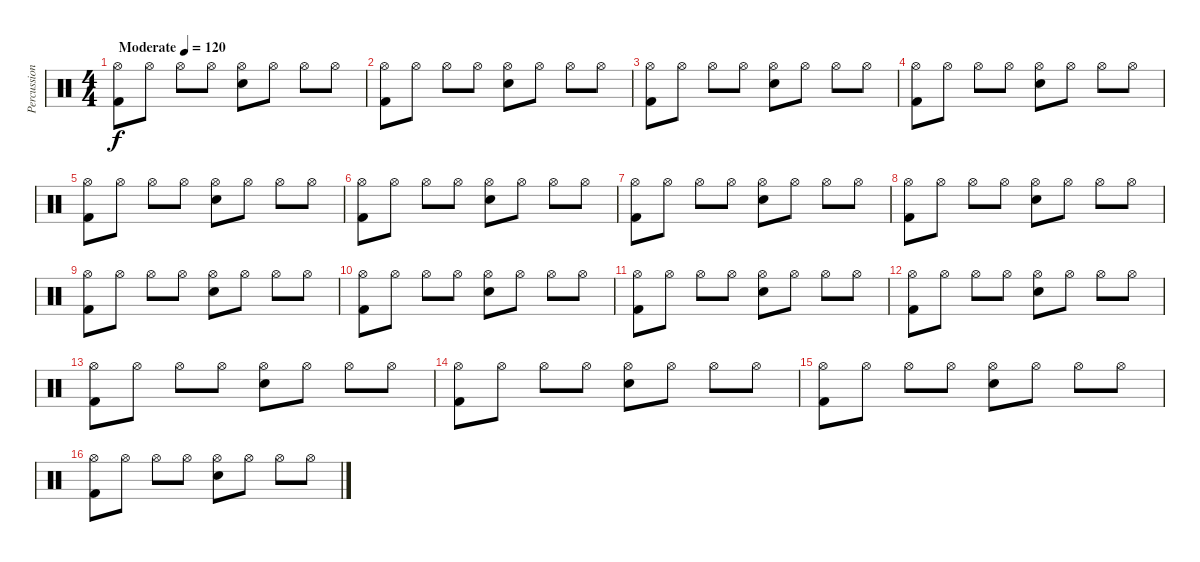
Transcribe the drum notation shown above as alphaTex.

\track ("Percussion" "Percussion") {instrument percussion}
\staff {score}
\articulation defaults
\ts (4 4)
\tempo (120 "Moderate")
\clef neutral
\ks c
("Hi-Hat (open)" "Kick (hit) 2").8{dy f} "Hi-Hat (open)".8 "Hi-Hat (open)".8 "Hi-Hat (open)".8 ("Hi-Hat (open)" "Snare (hit) 2").8 "Hi-Hat (open)".8 "Hi-Hat (open)".8 "Hi-Hat (open)".8 |
("Hi-Hat (open)" "Kick (hit) 2").8 "Hi-Hat (open)".8 "Hi-Hat (open)".8 "Hi-Hat (open)".8 ("Hi-Hat (open)" "Snare (hit) 2").8 "Hi-Hat (open)".8 "Hi-Hat (open)".8 "Hi-Hat (open)".8 |
("Hi-Hat (open)" "Kick (hit) 2").8 "Hi-Hat (open)".8 "Hi-Hat (open)".8 "Hi-Hat (open)".8 ("Hi-Hat (open)" "Snare (hit) 2").8 "Hi-Hat (open)".8 "Hi-Hat (open)".8 "Hi-Hat (open)".8 |
("Hi-Hat (open)" "Kick (hit) 2").8 "Hi-Hat (open)".8 "Hi-Hat (open)".8 "Hi-Hat (open)".8 ("Hi-Hat (open)" "Snare (hit) 2").8 "Hi-Hat (open)".8 "Hi-Hat (open)".8 "Hi-Hat (open)".8 |
("Hi-Hat (open)" "Kick (hit) 2").8 "Hi-Hat (open)".8 "Hi-Hat (open)".8 "Hi-Hat (open)".8 ("Hi-Hat (open)" "Snare (hit) 2").8 "Hi-Hat (open)".8 "Hi-Hat (open)".8 "Hi-Hat (open)".8 |
("Hi-Hat (open)" "Kick (hit) 2").8 "Hi-Hat (open)".8 "Hi-Hat (open)".8 "Hi-Hat (open)".8 ("Hi-Hat (open)" "Snare (hit) 2").8 "Hi-Hat (open)".8 "Hi-Hat (open)".8 "Hi-Hat (open)".8 |
("Hi-Hat (open)" "Kick (hit) 2").8 "Hi-Hat (open)".8 "Hi-Hat (open)".8 "Hi-Hat (open)".8 ("Hi-Hat (open)" "Snare (hit) 2").8 "Hi-Hat (open)".8 "Hi-Hat (open)".8 "Hi-Hat (open)".8 |
("Hi-Hat (open)" "Kick (hit) 2").8 "Hi-Hat (open)".8 "Hi-Hat (open)".8 "Hi-Hat (open)".8 ("Hi-Hat (open)" "Snare (hit) 2").8 "Hi-Hat (open)".8 "Hi-Hat (open)".8 "Hi-Hat (open)".8 |
("Hi-Hat (open)" "Kick (hit) 2").8 "Hi-Hat (open)".8 "Hi-Hat (open)".8 "Hi-Hat (open)".8 ("Hi-Hat (open)" "Snare (hit) 2").8 "Hi-Hat (open)".8 "Hi-Hat (open)".8 "Hi-Hat (open)".8 |
("Hi-Hat (open)" "Kick (hit) 2").8 "Hi-Hat (open)".8 "Hi-Hat (open)".8 "Hi-Hat (open)".8 ("Hi-Hat (open)" "Snare (hit) 2").8 "Hi-Hat (open)".8 "Hi-Hat (open)".8 "Hi-Hat (open)".8 |
("Hi-Hat (open)" "Kick (hit) 2").8 "Hi-Hat (open)".8 "Hi-Hat (open)".8 "Hi-Hat (open)".8 ("Hi-Hat (open)" "Snare (hit) 2").8 "Hi-Hat (open)".8 "Hi-Hat (open)".8 "Hi-Hat (open)".8 |
("Hi-Hat (open)" "Kick (hit) 2").8 "Hi-Hat (open)".8 "Hi-Hat (open)".8 "Hi-Hat (open)".8 ("Hi-Hat (open)" "Snare (hit) 2").8 "Hi-Hat (open)".8 "Hi-Hat (open)".8 "Hi-Hat (open)".8 |
("Hi-Hat (open)" "Kick (hit) 2").8 "Hi-Hat (open)".8 "Hi-Hat (open)".8 "Hi-Hat (open)".8 ("Hi-Hat (open)" "Snare (hit) 2").8 "Hi-Hat (open)".8 "Hi-Hat (open)".8 "Hi-Hat (open)".8 |
("Hi-Hat (open)" "Kick (hit) 2").8 "Hi-Hat (open)".8 "Hi-Hat (open)".8 "Hi-Hat (open)".8 ("Hi-Hat (open)" "Snare (hit) 2").8 "Hi-Hat (open)".8 "Hi-Hat (open)".8 "Hi-Hat (open)".8 |
("Hi-Hat (open)" "Kick (hit) 2").8 "Hi-Hat (open)".8 "Hi-Hat (open)".8 "Hi-Hat (open)".8 ("Hi-Hat (open)" "Snare (hit) 2").8 "Hi-Hat (open)".8 "Hi-Hat (open)".8 "Hi-Hat (open)".8 |
("Hi-Hat (open)" "Kick (hit) 2").8 "Hi-Hat (open)".8 "Hi-Hat (open)".8 "Hi-Hat (open)".8 ("Hi-Hat (open)" "Snare (hit) 2").8 "Hi-Hat (open)".8 "Hi-Hat (open)".8 "Hi-Hat (open)".8
